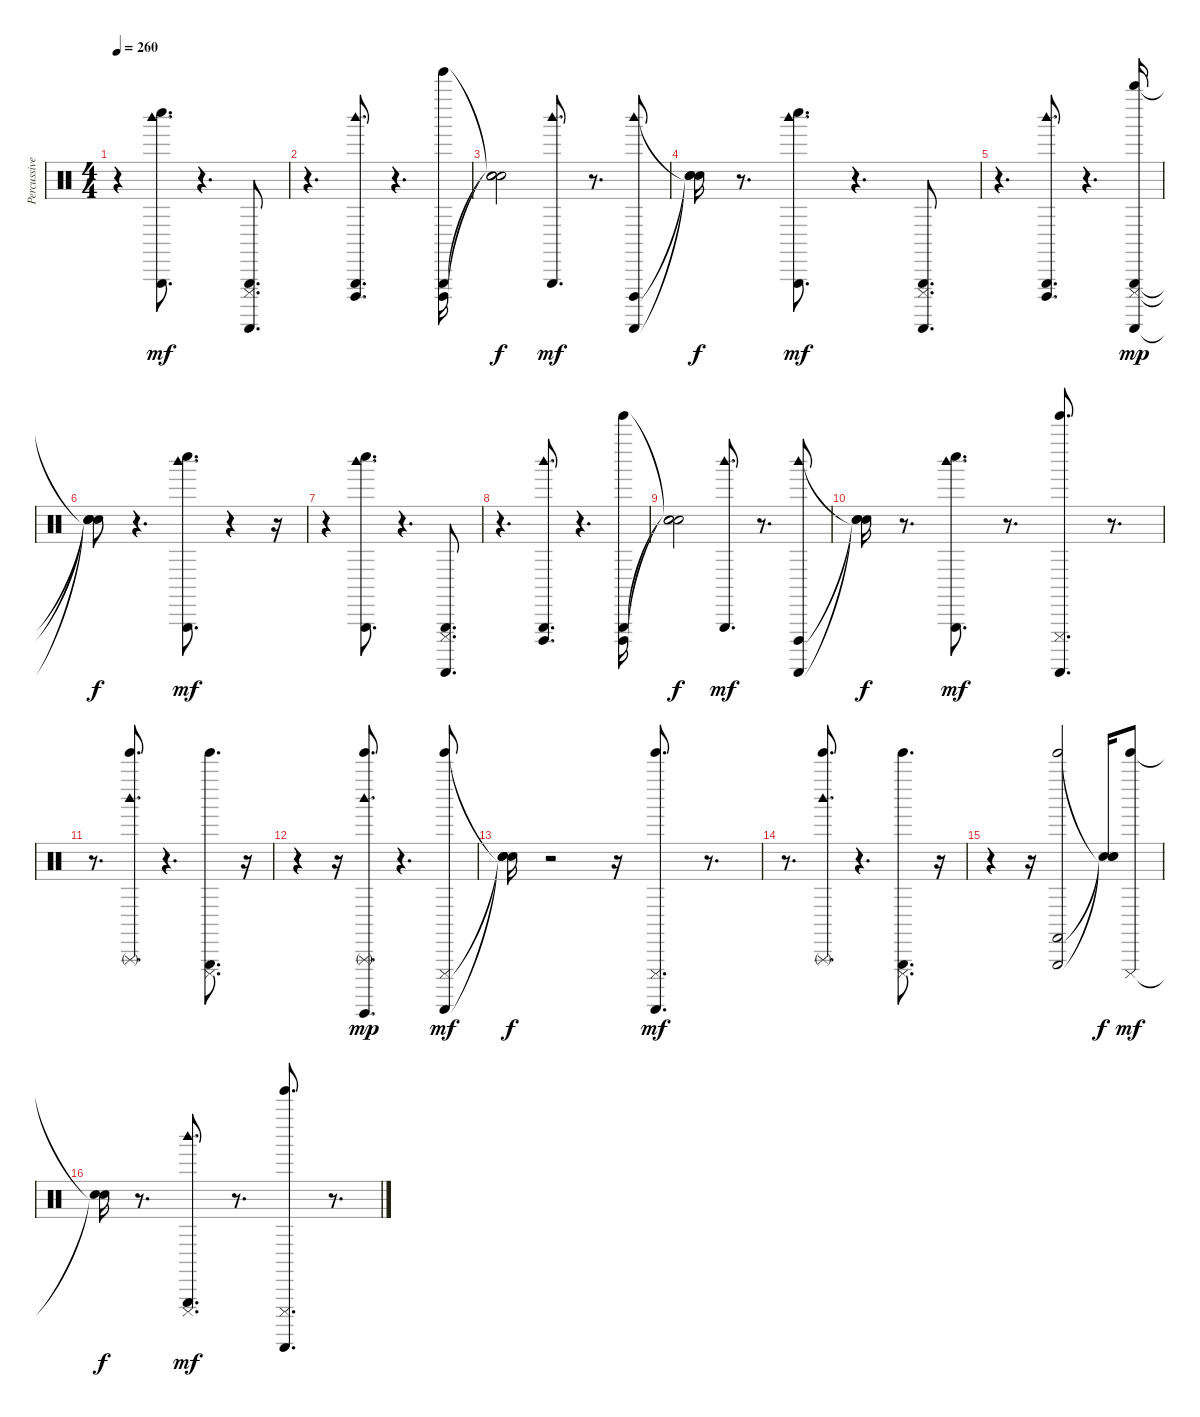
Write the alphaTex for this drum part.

\track ("Percussive Organ" "Percussive") {instrument percussion}
\staff {score}
\articulation defaults
\ts (4 4)
\tempo 260
\clef neutral
\ks c
r.4{dy mf} ("Whistle low (hit)" "Triangle (hit)" "Woodblock high (hit)").8{d} r.4{d} ("Guiro (scrap-return)" "Triangle (hit)" "Cuica (mute)").8{d} |
r.4{d} ("Woodblock high (hit)" "Triangle (hit)" "Cuica (open)").8{d} r.4{d} ("Cuica (open)" "Tinkle Bell (hit)" "Triangle (hit)").16 |
("Snare (hit)"{t} "Snare (hit)"{t} "Snare (hit)"{t}).2{dy f} ("Woodblock high (hit)" "Triangle (hit)").8{d dy mf} r.8{d} ("Guiro (scrap-return)" "Cuica (open)" "Woodblock high (hit)").8 |
("Snare (hit)"{t} "Snare (hit)"{t} "Snare (hit)"{t}).16{dy f} r.8{d} ("Whistle low (hit)" "Triangle (hit)" "Woodblock high (hit)").8{d dy mf} r.4{d} ("Guiro (scrap-return)" "Triangle (hit)" "Cuica (mute)").8{d} |
r.4{d} ("Woodblock high (hit)" "Triangle (hit)" "Cuica (open)").8{d} r.4{d} ("Whistle high (hit)" "Triangle (hit)" "Cuica (mute)" "Guiro (scrap-return)").16{dy mp} |
("Snare (hit)"{t} "Snare (hit)"{t} "Snare (hit)"{t} "Snare (hit)"{t}).8{dy f} r.4{d} ("Whistle low (hit)" "Triangle (hit)" "Woodblock high (hit)").8{d dy mf} r.4 r.16 |
r.4 ("Whistle low (hit)" "Triangle (hit)" "Woodblock high (hit)").8{d} r.4{d} ("Guiro (scrap-return)" "Triangle (hit)" "Cuica (mute)").8{d} |
r.4{d} ("Woodblock high (hit)" "Triangle (hit)" "Cuica (open)").8{d} r.4{d} ("Cuica (open)" "Tinkle Bell (hit)" "Triangle (hit)").16 |
("Snare (hit)"{t} "Snare (hit)"{t} "Snare (hit)"{t}).2{dy f} ("Woodblock high (hit)" "Triangle (hit)").8{d dy mf} r.8{d} ("Guiro (scrap-return)" "Cuica (open)" "Woodblock high (hit)").8 |
("Snare (hit)"{t} "Snare (hit)"{t} "Snare (hit)"{t}).16{dy f} r.8{d} ("Whistle low (hit)" "Triangle (hit)" "Woodblock high (hit)").8{d dy mf} r.8{d} ("Guiro (scrap-return)" "Tinkle Bell (hit)" "Cuica (mute)").8{d} r.8{d} |
r.8{d} ("Woodblock high (hit)" "Tinkle Bell (hit)" "Triangle (rnute)").8{d} r.4{d} ("Cuica (mute)" "Tinkle Bell (hit)" "Triangle (hit)").8{d} r.16 |
r.4 r.16 ("Guiro (hit)" "Tinkle Bell (hit)" "Triangle (rnute)" "Woodblock high (hit)").8{d dy mp} r.4{d} ("Guiro (scrap-return)" "Tinkle Bell (hit)" "Cuica (mute)").8{dy mf} |
("Snare (hit)"{t} "Snare (hit)"{t} "Snare (hit)"{t}).16{dy f} r.2 r.16 ("Guiro (scrap-return)" "Tinkle Bell (hit)" "Cuica (mute)").8{d dy mf} r.8{d} |
r.8{d} ("Woodblock high (hit)" "Tinkle Bell (hit)" "Triangle (rnute)").8{d} r.4{d} ("Cuica (mute)" "Tinkle Bell (hit)" "Triangle (hit)").8{d} r.16 |
r.4 r.16 ("Triangle (hit)" "Castanets (hit)" "Tinkle Bell (hit)").2 ("Snare (hit)"{t} "Snare (hit)"{t} "Snare (hit)"{t}).16{dy f} ("Cuica (mute)" "Tinkle Bell (hit)").8{dy mf} |
("Snare (hit)"{t} "Snare (hit)"{t}).16{dy f} r.8{d} ("Woodblock high (hit)" "Triangle (hit)" "Cuica (mute)").8{d dy mf} r.8{d} ("Guiro (scrap-return)" "Tinkle Bell (hit)" "Cuica (mute)").8{d} r.8{d}
